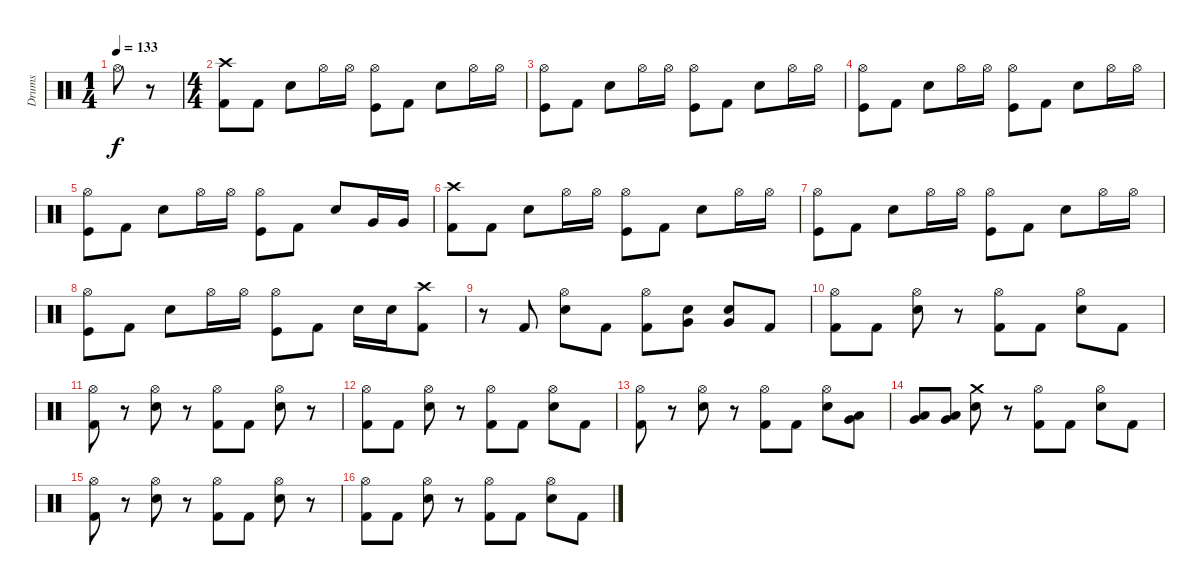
\track ("Drums" "Drums") {instrument percussion}
\staff {score}
\articulation defaults
\ts (1 4)
\tempo 133
\clef neutral
\ks c "Hi-Hat (open)".8{dy f}
r.8 |
\ts (4 4)
("Crash high (hit)" "Kick (hit) 2").8 "Kick (hit) 2".8 "Electric Snare (hit)".8 "Hi-Hat (open)".16 "Hi-Hat (open)".16 ("Hi-Hat (open)" "Kick (hit)").8 "Kick (hit) 2".8 "Electric Snare (hit)".8 "Hi-Hat (open)".16 "Hi-Hat (open)".16 |
("Hi-Hat (open)" "Kick (hit)").8 "Kick (hit) 2".8 "Electric Snare (hit)".8 "Hi-Hat (open)".16 "Hi-Hat (open)".16 ("Hi-Hat (open)" "Kick (hit)").8 "Kick (hit) 2".8 "Electric Snare (hit)".8 "Hi-Hat (open)".16 "Hi-Hat (open)".16 |
("Hi-Hat (open)" "Kick (hit)").8 "Kick (hit) 2".8 "Electric Snare (hit)".8 "Hi-Hat (open)".16 "Hi-Hat (open)".16 ("Hi-Hat (open)" "Kick (hit)").8 "Kick (hit) 2".8 "Electric Snare (hit)".8 "Hi-Hat (open)".16 "Hi-Hat (open)".16 |
("Hi-Hat (open)" "Kick (hit)").8 "Kick (hit) 2".8 "Electric Snare (hit)".8 "Hi-Hat (open)".16 "Hi-Hat (open)".16 ("Hi-Hat (open)" "Kick (hit)").8 "Kick (hit) 2".8 "Electric Snare (hit)".8 "Very Low Tom (hit)".16 "Very Low Tom (hit)".16 |
("Crash high (hit)" "Kick (hit) 2").8 "Kick (hit) 2".8 "Electric Snare (hit)".8 "Hi-Hat (open)".16 "Hi-Hat (open)".16 ("Hi-Hat (open)" "Kick (hit)").8 "Kick (hit) 2".8 "Electric Snare (hit)".8 "Hi-Hat (open)".16 "Hi-Hat (open)".16 |
("Hi-Hat (open)" "Kick (hit)").8 "Kick (hit) 2".8 "Electric Snare (hit)".8 "Hi-Hat (open)".16 "Hi-Hat (open)".16 ("Hi-Hat (open)" "Kick (hit)").8 "Kick (hit) 2".8 "Electric Snare (hit)".8 "Hi-Hat (open)".16 "Hi-Hat (open)".16 |
("Hi-Hat (open)" "Kick (hit)").8 "Kick (hit) 2".8 "Electric Snare (hit)".8 "Hi-Hat (open)".16 "Hi-Hat (open)".16 ("Hi-Hat (open)" "Kick (hit)").8 "Kick (hit) 2".8 "Electric Snare (hit)".16 "Electric Snare (hit)".16 ("Crash high (hit)" "Kick (hit) 2").8 |
r.8 "Kick (hit) 2".8 ("Hi-Hat (open)" "Electric Snare (hit)").8 "Kick (hit) 2".8 ("Hi-Hat (open)" "Kick (hit) 2").8 ("Very Low Tom (hit)" "Electric Snare (hit)").8 ("Very Low Tom (hit)" "Electric Snare (hit)").8 "Kick (hit) 2".8 |
("Hi-Hat (open)" "Kick (hit) 2").8 "Kick (hit) 2".8 ("Hi-Hat (open)" "Electric Snare (hit)").8 r.8 ("Hi-Hat (open)" "Kick (hit) 2").8 "Kick (hit) 2".8 ("Hi-Hat (open)" "Electric Snare (hit)").8 "Kick (hit) 2".8 |
("Hi-Hat (open)" "Kick (hit) 2").8 r.8 ("Hi-Hat (open)" "Electric Snare (hit)").8 r.8 ("Hi-Hat (open)" "Kick (hit) 2").8 "Kick (hit) 2".8 ("Hi-Hat (open)" "Electric Snare (hit)").8 r.8 |
("Hi-Hat (open)" "Kick (hit) 2").8 "Kick (hit) 2".8 ("Hi-Hat (open)" "Electric Snare (hit)").8 r.8 ("Hi-Hat (open)" "Kick (hit) 2").8 "Kick (hit) 2".8 ("Hi-Hat (open)" "Electric Snare (hit)").8 "Kick (hit) 2".8 |
("Hi-Hat (open)" "Kick (hit) 2").8 r.8 ("Hi-Hat (open)" "Electric Snare (hit)").8 r.8 ("Hi-Hat (open)" "Kick (hit) 2").8 "Kick (hit) 2".8 ("Hi-Hat (open)" "Electric Snare (hit)").8 ("Low Tom (hit)" "Very Low Tom (hit)").8 |
("Low Tom (hit)" "Very Low Tom (hit)").8 ("Low Tom (hit)" "Very Low Tom (hit)").8 ("Crash medium (hit)" "Electric Snare (hit)").8 r.8 ("Hi-Hat (open)" "Kick (hit) 2").8 "Kick (hit) 2".8 ("Hi-Hat (open)" "Electric Snare (hit)").8 "Kick (hit) 2".8 |
("Hi-Hat (open)" "Kick (hit) 2").8 r.8 ("Hi-Hat (open)" "Electric Snare (hit)").8 r.8 ("Hi-Hat (open)" "Kick (hit) 2").8 "Kick (hit) 2".8 ("Hi-Hat (open)" "Electric Snare (hit)").8 r.8 |
("Hi-Hat (open)" "Kick (hit) 2").8 "Kick (hit) 2".8 ("Hi-Hat (open)" "Electric Snare (hit)").8 r.8 ("Hi-Hat (open)" "Kick (hit) 2").8 "Kick (hit) 2".8 ("Hi-Hat (open)" "Electric Snare (hit)").8 "Kick (hit) 2".8
